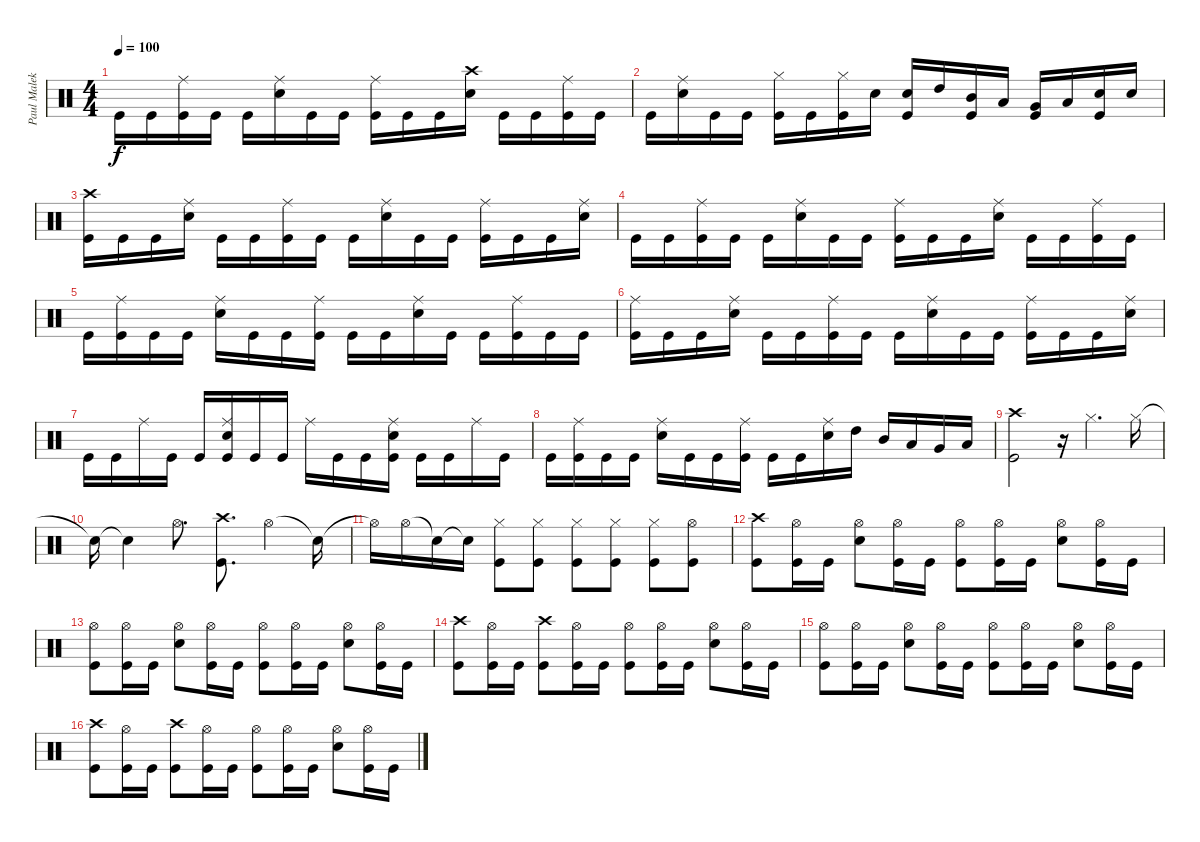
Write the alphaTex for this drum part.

\track ("Paul Malek" "Paul Malek") {instrument percussion}
\staff {score}
\articulation defaults
\ts (4 4)
\tempo 100
\clef neutral
\ks c "Kick (hit)".16{dy f} "Kick (hit)".16
("Ride (middle)" "Kick (hit)").16 "Kick (hit)".16 "Kick (hit)".16 ("Ride (middle)" "Snare (hit) 2").16 "Kick (hit)".16 "Kick (hit)".16 ("Ride (middle)" "Kick (hit)").16 "Kick (hit)".16 "Kick (hit)".16 ("Snare (hit) 2" "Crash high (hit)").16 "Kick (hit)".16 "Kick (hit)".16 ("Ride (middle)" "Kick (hit)").16 "Kick (hit)".16 |
"Kick (hit)".16 ("Ride (middle)" "Snare (hit) 2").16 "Kick (hit)".16 "Kick (hit)".16 ("Hi-Hat (closed)" "Kick (hit)").16 "Kick (hit)".16 ("Hi-Hat (closed)" "Kick (hit)").16 "Snare (hit) 2".16 ("Electric Snare (hit)" "Kick (hit)").16 "High Tom (hit)".16 ("Mid Tom (hit)" "Kick (hit)").16 "Low Tom (hit)".16 ("Very Low Tom (hit)" "Kick (hit)").16 "Low Floor Tom (hit)".16 ("Electric Snare (hit)" "Kick (hit)").16 "Snare (hit) 2".16 |
("Crash high (hit)" "Kick (hit)").16 "Kick (hit)".16 "Kick (hit)".16 ("Ride (middle)" "Snare (hit) 2").16 "Kick (hit)".16 "Kick (hit)".16 ("Ride (middle)" "Kick (hit)").16 "Kick (hit)".16 "Kick (hit)".16 ("Ride (middle)" "Snare (hit) 2").16 "Kick (hit)".16 "Kick (hit)".16 ("Ride (middle)" "Kick (hit)").16 "Kick (hit)".16 "Kick (hit)".16 ("Ride (middle)" "Snare (hit) 2").16 |
"Kick (hit)".16 "Kick (hit)".16 ("Ride (middle)" "Kick (hit)").16 "Kick (hit)".16 "Kick (hit)".16 ("Ride (middle)" "Snare (hit) 2").16 "Kick (hit)".16 "Kick (hit)".16 ("Ride (middle)" "Kick (hit)").16 "Kick (hit)".16 "Kick (hit)".16 ("Ride (middle)" "Snare (hit) 2").16 "Kick (hit)".16 "Kick (hit)".16 ("Ride (middle)" "Kick (hit)").16 "Kick (hit)".16 |
"Kick (hit)".16 ("Ride (middle)" "Kick (hit)").16 "Kick (hit)".16 "Kick (hit)".16 ("Ride (middle)" "Snare (hit) 2").16 "Kick (hit)".16 "Kick (hit)".16 ("Ride (middle)" "Kick (hit)").16 "Kick (hit)".16 "Kick (hit)".16 ("Ride (middle)" "Snare (hit) 2").16 "Kick (hit)".16 "Kick (hit)".16 ("Ride (middle)" "Kick (hit)").16 "Kick (hit)".16 "Kick (hit)".16 |
("Ride (middle)" "Kick (hit)").16 "Kick (hit)".16 "Kick (hit)".16 ("Ride (middle)" "Snare (hit) 2").16 "Kick (hit)".16 "Kick (hit)".16 ("Ride (middle)" "Kick (hit)").16 "Kick (hit)".16 "Kick (hit)".16 ("Ride (middle)" "Snare (hit) 2").16 "Kick (hit)".16 "Kick (hit)".16 ("Ride (middle)" "Kick (hit)").16 "Kick (hit)".16 "Kick (hit)".16 ("Ride (middle)" "Snare (hit) 2").16 |
"Kick (hit)".16 "Kick (hit)".16 "Ride (middle)".16 "Kick (hit)".16 "Kick (hit)".16 ("Ride (middle)" "Snare (hit) 2" "Kick (hit)").16 "Kick (hit)".16 "Kick (hit)".16 "Ride (middle)".16 "Kick (hit)".16 "Kick (hit)".16 ("Ride (middle)" "Snare (hit) 2" "Kick (hit)").16 "Kick (hit)".16 "Kick (hit)".16 "Ride (middle)".16 "Kick (hit)".16 |
"Kick (hit)".16 ("Ride (middle)" "Kick (hit)").16 "Kick (hit)".16 "Kick (hit)".16 ("Ride (middle)" "Snare (hit) 2").16 "Kick (hit)".16 "Kick (hit)".16 ("Ride (middle)" "Kick (hit)").16 "Kick (hit)".16 "Kick (hit)".16 ("Ride (middle)" "Electric Snare (hit)").16 "High Tom (hit)".16 "Mid Tom (hit)".16 "Low Tom (hit)".16 "Very Low Tom (hit)".16 "Low Floor Tom (hit)".16 |
("Crash high (hit)" "Kick (hit)").2 r.16 "Hi-Hat (closed)".4{d} "Hi-Hat (closed)".16 |
"Snare (hit)"{t}.16 "Snare (hit)"{t}.4 "Hi-Hat (open)".8{d} ("Crash high (hit)" "Kick (hit)").8{d} "Hi-Hat (open)".4 "Snare (hit)"{t}.16 |
"Hi-Hat (open)"{t}.16 "Hi-Hat (open)".16 "Snare (hit)"{t}.16 "Snare (hit)"{t}.16 ("Hi-Hat (closed)" "Kick (hit)").8 ("Hi-Hat (closed)" "Kick (hit)").8 ("Hi-Hat (closed)" "Kick (hit)").8 ("Hi-Hat (closed)" "Kick (hit)").8 ("Hi-Hat (closed)" "Kick (hit)").8 ("Hi-Hat (open)" "Kick (hit)").8 |
("Crash high (hit)" "Kick (hit)").8 ("Hi-Hat (open)" "Kick (hit)").16 "Kick (hit)".16 ("Hi-Hat (open)" "Snare (hit) 2").8 ("Hi-Hat (open)" "Kick (hit)").16 "Kick (hit)".16 ("Hi-Hat (open)" "Kick (hit)").8 ("Hi-Hat (open)" "Kick (hit)").16 "Kick (hit)".16 ("Hi-Hat (open)" "Snare (hit) 2").8 ("Hi-Hat (open)" "Kick (hit)").16 "Kick (hit)".16 |
("Hi-Hat (open)" "Kick (hit)").8 ("Hi-Hat (open)" "Kick (hit)").16 "Kick (hit)".16 ("Hi-Hat (open)" "Snare (hit) 2").8 ("Hi-Hat (open)" "Kick (hit)").16 "Kick (hit)".16 ("Hi-Hat (open)" "Kick (hit)").8 ("Hi-Hat (open)" "Kick (hit)").16 "Kick (hit)".16 ("Hi-Hat (open)" "Snare (hit) 2").8 ("Hi-Hat (open)" "Kick (hit)").16 "Kick (hit)".16 |
("Crash high (hit)" "Kick (hit)").8 ("Hi-Hat (open)" "Kick (hit)").16 "Kick (hit)".16 ("Crash high (hit)" "Kick (hit)").8 ("Hi-Hat (open)" "Kick (hit)").16 "Kick (hit)".16 ("Hi-Hat (open)" "Kick (hit)").8 ("Hi-Hat (open)" "Kick (hit)").16 "Kick (hit)".16 ("Hi-Hat (open)" "Snare (hit) 2").8 ("Hi-Hat (open)" "Kick (hit)").16 "Kick (hit)".16 |
("Hi-Hat (open)" "Kick (hit)").8 ("Hi-Hat (open)" "Kick (hit)").16 "Kick (hit)".16 ("Hi-Hat (open)" "Snare (hit) 2").8 ("Hi-Hat (open)" "Kick (hit)").16 "Kick (hit)".16 ("Hi-Hat (open)" "Kick (hit)").8 ("Hi-Hat (open)" "Kick (hit)").16 "Kick (hit)".16 ("Hi-Hat (open)" "Snare (hit) 2").8 ("Hi-Hat (open)" "Kick (hit)").16 "Kick (hit)".16 |
("Crash high (hit)" "Kick (hit)").8 ("Hi-Hat (open)" "Kick (hit)").16 "Kick (hit)".16 ("Crash high (hit)" "Kick (hit)").8 ("Hi-Hat (open)" "Kick (hit)").16 "Kick (hit)".16 ("Hi-Hat (open)" "Kick (hit)").8 ("Hi-Hat (open)" "Kick (hit)").16 "Kick (hit)".16 ("Hi-Hat (open)" "Snare (hit) 2").8 ("Hi-Hat (open)" "Kick (hit)").16 "Kick (hit)".16
